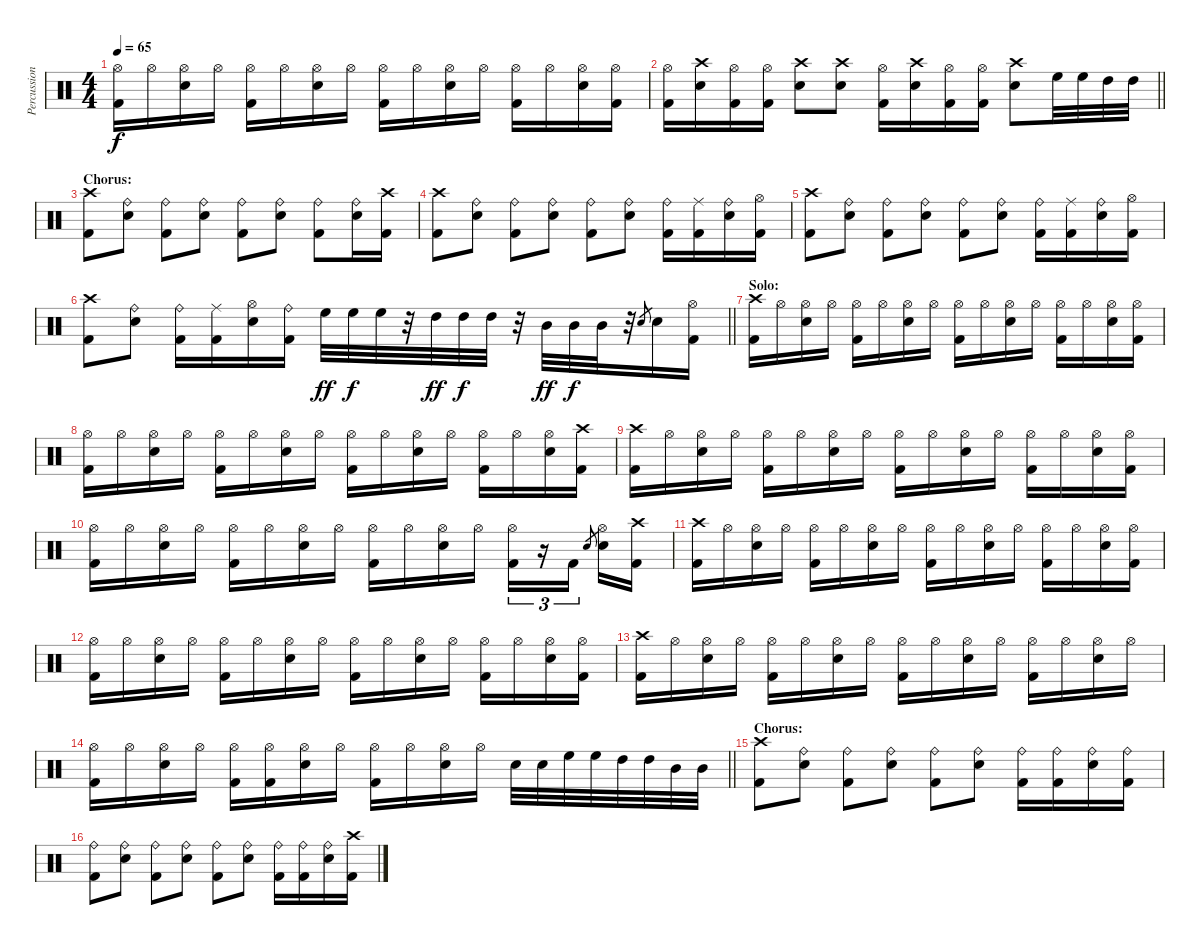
\track ("Percussion" "Percussion") {instrument percussion}
\staff {score}
\articulation defaults
\ts (4 4)
\tempo 65
\clef neutral
\ks c
("Hi-Hat (open)" "Kick (hit) 2").16{dy f} "Hi-Hat (open)".16 ("Hi-Hat (open)" "Electric Snare (hit)").16 "Hi-Hat (open)".16 ("Hi-Hat (open)" "Kick (hit) 2").16 "Hi-Hat (open)".16 ("Hi-Hat (open)" "Electric Snare (hit)").16 "Hi-Hat (open)".16 ("Hi-Hat (open)" "Kick (hit) 2").16 "Hi-Hat (open)".16 ("Hi-Hat (open)" "Electric Snare (hit)").16 "Hi-Hat (open)".16 ("Hi-Hat (open)" "Kick (hit) 2").16 "Hi-Hat (open)".16 ("Hi-Hat (open)" "Electric Snare (hit)").16 ("Hi-Hat (open)" "Kick (hit) 2").16 |
\barLineRight lightlight
("Hi-Hat (open)" "Kick (hit) 2").16 ("Crash high (hit)" "Electric Snare (hit)").16 ("Hi-Hat (open)" "Kick (hit) 2").16 ("Hi-Hat (open)" "Kick (hit) 2").16 ("Crash high (hit)" "Electric Snare (hit)").8 ("Crash high (hit)" "Electric Snare (hit)").8 ("Hi-Hat (open)" "Kick (hit) 2").16 ("Crash high (hit)" "Electric Snare (hit)").16 ("Hi-Hat (open)" "Kick (hit) 2").16 ("Hi-Hat (open)" "Kick (hit) 2").16 ("Crash high (hit)" "Electric Snare (hit)").8 "High Floor Tom (hit)".32 "High Floor Tom (hit)".32 "High Tom (hit)".32 "High Tom (hit)".32 |
\section ("" "Chorus:")
("Crash high (hit)" "Kick (hit) 2").8 ("Ride (bell)" "Electric Snare (hit)").8 ("Ride (bell)" "Kick (hit) 2").8 ("Ride (bell)" "Electric Snare (hit)").8 ("Ride (bell)" "Kick (hit) 2").8 ("Ride (bell)" "Electric Snare (hit)").8 ("Ride (bell)" "Kick (hit) 2").8 ("Ride (bell)" "Electric Snare (hit)").16 ("Crash high (hit)" "Kick (hit) 2").16 |
("Crash high (hit)" "Kick (hit) 2").8 ("Ride (bell)" "Electric Snare (hit)").8 ("Ride (bell)" "Kick (hit) 2").8 ("Ride (bell)" "Electric Snare (hit)").8 ("Ride (bell)" "Kick (hit) 2").8 ("Ride (bell)" "Electric Snare (hit)").8 ("Ride (bell)" "Kick (hit) 2").16 ("Ride (middle)" "Kick (hit) 2").16 ("Ride (bell)" "Electric Snare (hit)").16 ("Hi-Hat (open)" "Kick (hit) 2").16 |
("Crash high (hit)" "Kick (hit) 2").8 ("Ride (bell)" "Electric Snare (hit)").8 ("Ride (bell)" "Kick (hit) 2").8 ("Ride (bell)" "Electric Snare (hit)").8 ("Ride (bell)" "Kick (hit) 2").8 ("Ride (bell)" "Electric Snare (hit)").8 ("Ride (bell)" "Kick (hit) 2").16 ("Ride (middle)" "Kick (hit) 2").16 ("Ride (bell)" "Electric Snare (hit)").16 ("Hi-Hat (open)" "Kick (hit) 2").16 |
\barLineRight lightlight
("Crash high (hit)" "Kick (hit) 2").8 ("Ride (bell)" "Electric Snare (hit)").8 ("Ride (bell)" "Kick (hit) 2").16 ("Ride (middle)" "Kick (hit) 2").16 ("Hi-Hat (open)" "Electric Snare (hit)").16 ("Ride (bell)" "Kick (hit) 2").16 "High Floor Tom (hit)".32{dy ff} "High Floor Tom (hit)".32{dy f} "High Floor Tom (hit)".32 r.32 "High Tom (hit)".32{dy ff} "High Tom (hit)".32{dy f} "High Tom (hit)".32 r.32 "Mid Tom (hit)".32{dy ff} "Mid Tom (hit)".32{dy f} "Mid Tom (hit)".32 r.32 "Electric Snare (hit)".8{gr} "Electric Snare (hit)".16 ("Hi-Hat (open)" "Kick (hit) 2").16 |
\section ("" "Solo:")
("Crash high (hit)" "Kick (hit) 2").16 "Hi-Hat (open)".16 ("Hi-Hat (open)" "Electric Snare (hit)").16 "Hi-Hat (open)".16 ("Hi-Hat (open)" "Kick (hit) 2").16 "Hi-Hat (open)".16 ("Hi-Hat (open)" "Electric Snare (hit)").16 "Hi-Hat (open)".16 ("Hi-Hat (open)" "Kick (hit) 2").16 "Hi-Hat (open)".16 ("Hi-Hat (open)" "Electric Snare (hit)").16 "Hi-Hat (open)".16 ("Hi-Hat (open)" "Kick (hit) 2").16 "Hi-Hat (open)".16 ("Hi-Hat (open)" "Electric Snare (hit)").16 ("Hi-Hat (open)" "Kick (hit) 2").16 |
("Hi-Hat (open)" "Kick (hit) 2").16 "Hi-Hat (open)".16 ("Hi-Hat (open)" "Electric Snare (hit)").16 "Hi-Hat (open)".16 ("Hi-Hat (open)" "Kick (hit) 2").16 "Hi-Hat (open)".16 ("Hi-Hat (open)" "Electric Snare (hit)").16 "Hi-Hat (open)".16 ("Hi-Hat (open)" "Kick (hit) 2").16 "Hi-Hat (open)".16 ("Hi-Hat (open)" "Electric Snare (hit)").16 "Hi-Hat (open)".16 ("Hi-Hat (open)" "Kick (hit) 2").16 "Hi-Hat (open)".16 ("Hi-Hat (open)" "Electric Snare (hit)").16 ("Crash high (hit)" "Kick (hit) 2").16 |
("Crash high (hit)" "Kick (hit) 2").16 "Hi-Hat (open)".16 ("Hi-Hat (open)" "Electric Snare (hit)").16 "Hi-Hat (open)".16 ("Hi-Hat (open)" "Kick (hit) 2").16 "Hi-Hat (open)".16 ("Hi-Hat (open)" "Electric Snare (hit)").16 "Hi-Hat (open)".16 ("Hi-Hat (open)" "Kick (hit) 2").16 "Hi-Hat (open)".16 ("Hi-Hat (open)" "Electric Snare (hit)").16 "Hi-Hat (open)".16 ("Hi-Hat (open)" "Kick (hit) 2").16 "Hi-Hat (open)".16 ("Hi-Hat (open)" "Electric Snare (hit)").16 ("Hi-Hat (open)" "Kick (hit) 2").16 |
("Hi-Hat (open)" "Kick (hit) 2").16 "Hi-Hat (open)".16 ("Hi-Hat (open)" "Electric Snare (hit)").16 "Hi-Hat (open)".16 ("Hi-Hat (open)" "Kick (hit) 2").16 "Hi-Hat (open)".16 ("Hi-Hat (open)" "Electric Snare (hit)").16 "Hi-Hat (open)".16 ("Hi-Hat (open)" "Kick (hit) 2").16 "Hi-Hat (open)".16 ("Hi-Hat (open)" "Electric Snare (hit)").16 "Hi-Hat (open)".16 ("Hi-Hat (open)" "Kick (hit) 2").16{tu (3 2)} r.16{tu (3 2)} "Kick (hit) 2".16{tu (3 2)} "Electric Snare (hit)".8{gr} ("Hi-Hat (open)" "Electric Snare (hit)").16 ("Crash high (hit)" "Kick (hit) 2").16 |
("Crash high (hit)" "Kick (hit) 2").16 "Hi-Hat (open)".16 ("Hi-Hat (open)" "Electric Snare (hit)").16 "Hi-Hat (open)".16 ("Hi-Hat (open)" "Kick (hit) 2").16 "Hi-Hat (open)".16 ("Hi-Hat (open)" "Electric Snare (hit)").16 "Hi-Hat (open)".16 ("Hi-Hat (open)" "Kick (hit) 2").16 "Hi-Hat (open)".16 ("Hi-Hat (open)" "Electric Snare (hit)").16 "Hi-Hat (open)".16 ("Hi-Hat (open)" "Kick (hit) 2").16 "Hi-Hat (open)".16 ("Hi-Hat (open)" "Electric Snare (hit)").16 ("Hi-Hat (open)" "Kick (hit) 2").16 |
("Hi-Hat (open)" "Kick (hit) 2").16 "Hi-Hat (open)".16 ("Hi-Hat (open)" "Electric Snare (hit)").16 "Hi-Hat (open)".16 ("Hi-Hat (open)" "Kick (hit) 2").16 "Hi-Hat (open)".16 ("Hi-Hat (open)" "Electric Snare (hit)").16 "Hi-Hat (open)".16 ("Hi-Hat (open)" "Kick (hit) 2").16 "Hi-Hat (open)".16 ("Hi-Hat (open)" "Electric Snare (hit)").16 "Hi-Hat (open)".16 ("Hi-Hat (open)" "Kick (hit) 2").16 "Hi-Hat (open)".16 ("Hi-Hat (open)" "Electric Snare (hit)").16 ("Hi-Hat (open)" "Kick (hit) 2").16 |
("Crash high (hit)" "Kick (hit) 2").16 "Hi-Hat (open)".16 ("Hi-Hat (open)" "Electric Snare (hit)").16 "Hi-Hat (open)".16 ("Hi-Hat (open)" "Kick (hit) 2").16 "Hi-Hat (open)".16 ("Hi-Hat (open)" "Electric Snare (hit)").16 "Hi-Hat (open)".16 ("Hi-Hat (open)" "Kick (hit) 2").16 "Hi-Hat (open)".16 ("Hi-Hat (open)" "Electric Snare (hit)").16 "Hi-Hat (open)".16 ("Hi-Hat (open)" "Kick (hit) 2").16 "Hi-Hat (open)".16 ("Hi-Hat (open)" "Electric Snare (hit)").16 "Hi-Hat (open)".16 |
\barLineRight lightlight
("Hi-Hat (open)" "Kick (hit) 2").16 "Hi-Hat (open)".16 ("Hi-Hat (open)" "Electric Snare (hit)").16 "Hi-Hat (open)".16 ("Hi-Hat (open)" "Kick (hit) 2").16 ("Hi-Hat (open)" "Kick (hit) 2").16 ("Hi-Hat (open)" "Electric Snare (hit)").16 "Hi-Hat (open)".16 ("Hi-Hat (open)" "Kick (hit) 2").16 "Hi-Hat (open)".16 ("Hi-Hat (open)" "Electric Snare (hit)").16 "Hi-Hat (open)".16 "Electric Snare (hit)".32 "Electric Snare (hit)".32 "High Floor Tom (hit)".32 "High Floor Tom (hit)".32 "High Tom (hit)".32 "High Tom (hit)".32 "Mid Tom (hit)".32 "Mid Tom (hit)".32 |
\section ("" "Chorus:")
("Crash high (hit)" "Kick (hit) 2").8 ("Ride (bell)" "Electric Snare (hit)").8 ("Ride (bell)" "Kick (hit) 2").8 ("Ride (bell)" "Electric Snare (hit)").8 ("Ride (bell)" "Kick (hit) 2").8 ("Ride (bell)" "Electric Snare (hit)").8 ("Ride (bell)" "Kick (hit) 2").16 ("Ride (bell)" "Kick (hit) 2").16 ("Ride (bell)" "Electric Snare (hit)").16 ("Ride (bell)" "Kick (hit) 2").16 |
("Ride (bell)" "Kick (hit) 2").8 ("Ride (bell)" "Electric Snare (hit)").8 ("Ride (bell)" "Kick (hit) 2").8 ("Ride (bell)" "Electric Snare (hit)").8 ("Ride (bell)" "Kick (hit) 2").8 ("Ride (bell)" "Electric Snare (hit)").8 ("Ride (bell)" "Kick (hit) 2").16 ("Ride (bell)" "Kick (hit) 2").16 ("Ride (bell)" "Electric Snare (hit)").16 ("Crash high (hit)" "Kick (hit) 2").16
